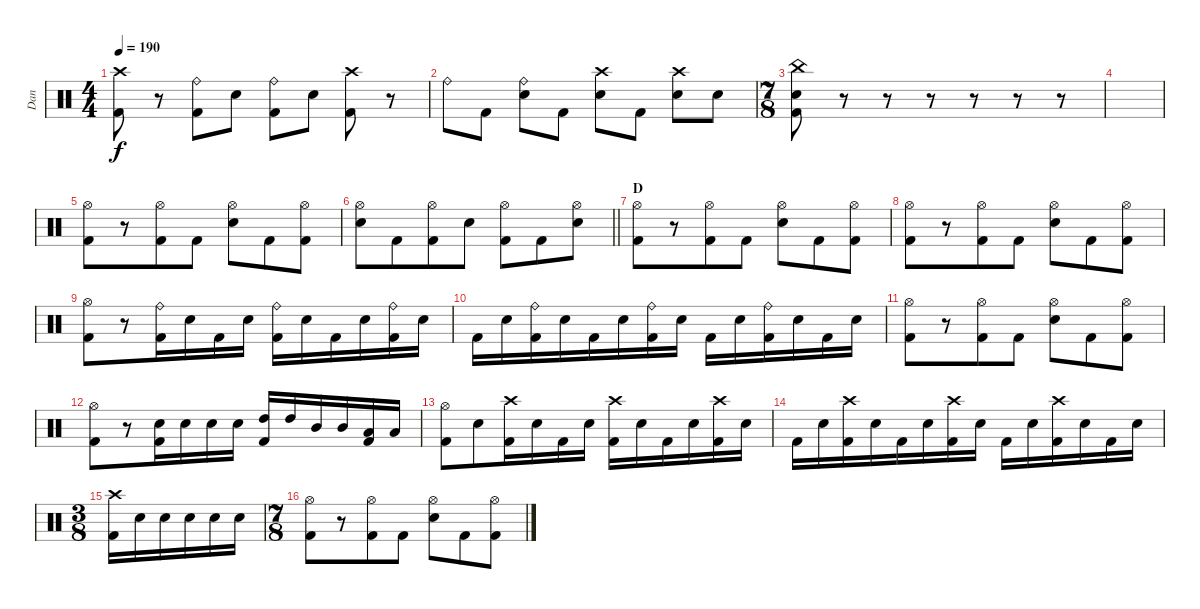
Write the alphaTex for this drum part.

\track ("Dan" "Dan") {instrument percussion}
\staff {score}
\articulation defaults
\ts (4 4)
\tempo 190
\clef neutral
\ks c
("Crash high (hit)" "Kick (hit) 2").8{dy f} r.8 ("Ride (bell)" "Kick (hit) 2").8 "Electric Snare (hit)".8 ("Ride (bell)" "Kick (hit) 2").8 "Electric Snare (hit)".8 ("Crash high (hit)" "Kick (hit) 2").8 r.8 |
"Ride (bell)".8 "Kick (hit) 2".8 ("Ride (bell)" "Electric Snare (hit)").8 "Kick (hit) 2".8 ("Crash high (hit)" "Electric Snare (hit)").8 "Kick (hit) 2".8 ("Crash high (hit)" "Electric Snare (hit)").8 "Electric Snare (hit)".8 |
\ts (7 8)
("China (hit)" "Electric Snare (hit)" "Kick (hit) 2").8 r.8 r.8 r.8 r.8 r.8 r.8 |
|
("Hi-Hat (open)" "Kick (hit) 2").8 r.8 ("Hi-Hat (open)" "Kick (hit) 2").8 "Kick (hit) 2".8 ("Hi-Hat (open)" "Electric Snare (hit)").8 "Kick (hit) 2".8 ("Hi-Hat (open)" "Kick (hit) 2").8 |
\barLineRight lightlight
("Hi-Hat (open)" "Electric Snare (hit)").8 "Kick (hit) 2".8 ("Hi-Hat (open)" "Kick (hit) 2").8 "Electric Snare (hit)".8 ("Hi-Hat (open)" "Kick (hit) 2").8 "Kick (hit) 2".8 ("Hi-Hat (open)" "Electric Snare (hit)").8 |
\section ("" "D")
("Hi-Hat (open)" "Kick (hit) 2").8 r.8 ("Hi-Hat (open)" "Kick (hit) 2").8 "Kick (hit) 2".8 ("Hi-Hat (open)" "Electric Snare (hit)").8 "Kick (hit) 2".8 ("Hi-Hat (open)" "Kick (hit) 2").8 |
("Hi-Hat (open)" "Kick (hit) 2").8 r.8 ("Hi-Hat (open)" "Kick (hit) 2").8 "Kick (hit) 2".8 ("Hi-Hat (open)" "Electric Snare (hit)").8 "Kick (hit) 2".8 ("Hi-Hat (open)" "Kick (hit) 2").8 |
("Hi-Hat (open)" "Kick (hit) 2").8 r.8 ("Ride (bell)" "Kick (hit) 2").16 "Electric Snare (hit)".16 "Kick (hit) 2".16 "Electric Snare (hit)".16 ("Ride (bell)" "Kick (hit) 2").16 "Electric Snare (hit)".16 "Kick (hit) 2".16 "Electric Snare (hit)".16 ("Ride (bell)" "Kick (hit) 2").16 "Electric Snare (hit)".16 |
"Kick (hit) 2".16 "Electric Snare (hit)".16 ("Ride (bell)" "Kick (hit) 2").16 "Electric Snare (hit)".16 "Kick (hit) 2".16 "Electric Snare (hit)".16 ("Ride (bell)" "Kick (hit) 2").16 "Electric Snare (hit)".16 "Kick (hit) 2".16 "Electric Snare (hit)".16 ("Ride (bell)" "Kick (hit) 2").16 "Electric Snare (hit)".16 "Kick (hit) 2".16 "Electric Snare (hit)".16 |
("Hi-Hat (open)" "Kick (hit) 2").8 r.8 ("Hi-Hat (open)" "Kick (hit) 2").8 "Kick (hit) 2".8 ("Hi-Hat (open)" "Electric Snare (hit)").8 "Kick (hit) 2".8 ("Hi-Hat (open)" "Kick (hit) 2").8 |
("Hi-Hat (open)" "Kick (hit) 2").8 r.8 ("Electric Snare (hit)" "Kick (hit) 2").16 "Electric Snare (hit)".16 "Electric Snare (hit)".16 "Electric Snare (hit)".16 ("High Tom (hit)" "Kick (hit) 2").16 "High Tom (hit)".16 "Mid Tom (hit)".16 "Mid Tom (hit)".16 ("Low Tom (hit)" "Kick (hit) 2").16 "Low Tom (hit)".16 |
("Hi-Hat (open)" "Kick (hit) 2").8 "Electric Snare (hit)".8 ("Crash high (hit)" "Kick (hit) 2").16 "Electric Snare (hit)".16 "Kick (hit) 2".16 "Electric Snare (hit)".16 ("Crash high (hit)" "Kick (hit) 2").16 "Electric Snare (hit)".16 "Kick (hit) 2".16 "Electric Snare (hit)".16 ("Crash high (hit)" "Kick (hit) 2").16 "Electric Snare (hit)".16 |
"Kick (hit) 2".16 "Electric Snare (hit)".16 ("Crash high (hit)" "Kick (hit) 2").16 "Electric Snare (hit)".16 "Kick (hit) 2".16 "Electric Snare (hit)".16 ("Crash high (hit)" "Kick (hit) 2").16 "Electric Snare (hit)".16 "Kick (hit) 2".16 "Electric Snare (hit)".16 ("Crash high (hit)" "Kick (hit) 2").16 "Electric Snare (hit)".16 "Kick (hit) 2".16 "Electric Snare (hit)".16 |
\ts (3 8)
("Crash high (hit)" "Kick (hit) 2").16 "Electric Snare (hit)".16 "Electric Snare (hit)".16 "Electric Snare (hit)".16 "Electric Snare (hit)".16 "Electric Snare (hit)".16 |
\ts (7 8)
("Hi-Hat (open)" "Kick (hit) 2").8 r.8 ("Hi-Hat (open)" "Kick (hit) 2").8 "Kick (hit) 2".8 ("Hi-Hat (open)" "Electric Snare (hit)").8 "Kick (hit) 2".8 ("Hi-Hat (open)" "Kick (hit) 2").8
